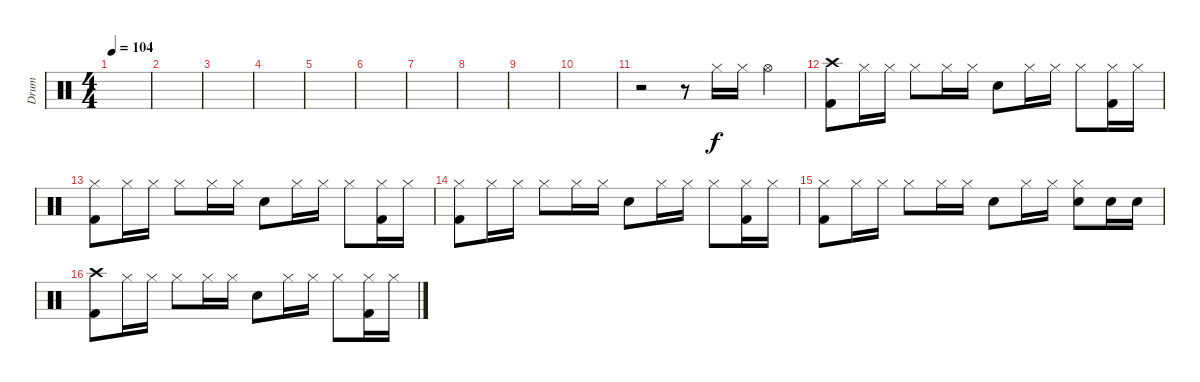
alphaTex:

\track ("Drum" "Drum") {instrument percussion}
\staff {score}
\articulation defaults
\ts (4 4)
\tempo 104
\clef neutral
\ks c
|
|
|
|
|
|
|
|
|
|
r.2 r.8 "Hi-Hat (closed)".16 "Hi-Hat (closed)".16 "Hi-Hat (open)".4 |
("Crash high (hit)" "Kick (hit) 2").8 "Hi-Hat (closed)".16 "Hi-Hat (closed)".16 "Hi-Hat (closed)".8 "Hi-Hat (closed)".16 "Hi-Hat (closed)".16 "Snare (hit) 2".8 "Hi-Hat (closed)".16 "Hi-Hat (closed)".16 "Hi-Hat (closed)".8 ("Hi-Hat (closed)" "Kick (hit) 2").16 "Hi-Hat (closed)".16 |
("Hi-Hat (closed)" "Kick (hit) 2").8 "Hi-Hat (closed)".16 "Hi-Hat (closed)".16 "Hi-Hat (closed)".8 "Hi-Hat (closed)".16 "Hi-Hat (closed)".16 "Snare (hit) 2".8 "Hi-Hat (closed)".16 "Hi-Hat (closed)".16 "Hi-Hat (closed)".8 ("Hi-Hat (closed)" "Kick (hit) 2").16 "Hi-Hat (closed)".16 |
("Hi-Hat (closed)" "Kick (hit) 2").8 "Hi-Hat (closed)".16 "Hi-Hat (closed)".16 "Hi-Hat (closed)".8 "Hi-Hat (closed)".16 "Hi-Hat (closed)".16 "Snare (hit) 2".8 "Hi-Hat (closed)".16 "Hi-Hat (closed)".16 "Hi-Hat (closed)".8 ("Hi-Hat (closed)" "Kick (hit) 2").16 "Hi-Hat (closed)".16 |
("Hi-Hat (closed)" "Kick (hit) 2").8 "Hi-Hat (closed)".16 "Hi-Hat (closed)".16 "Hi-Hat (closed)".8 "Hi-Hat (closed)".16 "Hi-Hat (closed)".16 "Snare (hit) 2".8 "Hi-Hat (closed)".16 "Hi-Hat (closed)".16 ("Hi-Hat (closed)" "Snare (hit) 2").8 "Snare (hit) 2".16 "Snare (hit) 2".16 |
("Crash high (hit)" "Kick (hit) 2").8 "Hi-Hat (closed)".16 "Hi-Hat (closed)".16 "Hi-Hat (closed)".8 "Hi-Hat (closed)".16 "Hi-Hat (closed)".16 "Snare (hit) 2".8 "Hi-Hat (closed)".16 "Hi-Hat (closed)".16 "Hi-Hat (closed)".8 ("Hi-Hat (closed)" "Kick (hit) 2").16 "Hi-Hat (closed)".16
